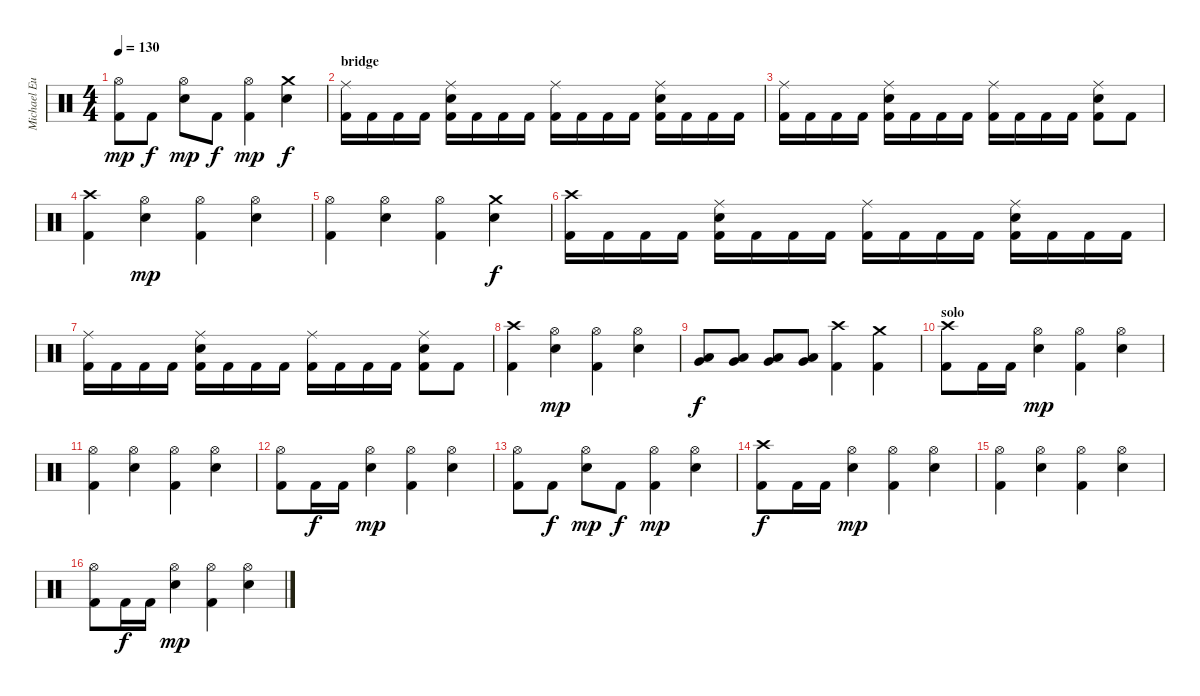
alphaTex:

\track ("Michael Eurich" "Michael Eu") {instrument percussion}
\staff {score}
\articulation defaults
\ts (4 4)
\tempo 130
\clef neutral
\ks c
("Kick (hit) 2" "Hi-Hat (open)").8{dy mp} "Kick (hit) 2".8{dy f} ("Hi-Hat (open)" "Snare (hit) 2").8{dy mp} "Kick (hit) 2".8{dy f} ("Kick (hit) 2" "Hi-Hat (open)").4{dy mp} ("Crash medium (hit)" "Snare (hit) 2").4{dy f} |
\section ("" "bridge")
("Kick (hit) 2" "Ride (middle)").16 "Kick (hit) 2".16 "Kick (hit) 2".16 "Kick (hit) 2".16 ("Kick (hit) 2" "Ride (middle)" "Snare (hit) 2").16 "Kick (hit) 2".16 "Kick (hit) 2".16 "Kick (hit) 2".16 ("Kick (hit) 2" "Ride (middle)").16 "Kick (hit) 2".16 "Kick (hit) 2".16 "Kick (hit) 2".16 ("Kick (hit) 2" "Ride (middle)" "Snare (hit) 2").16 "Kick (hit) 2".16 "Kick (hit) 2".16 "Kick (hit) 2".16 |
("Kick (hit) 2" "Ride (middle)").16 "Kick (hit) 2".16 "Kick (hit) 2".16 "Kick (hit) 2".16 ("Kick (hit) 2" "Ride (middle)" "Snare (hit) 2").16 "Kick (hit) 2".16 "Kick (hit) 2".16 "Kick (hit) 2".16 ("Kick (hit) 2" "Ride (middle)").16 "Kick (hit) 2".16 "Kick (hit) 2".16 "Kick (hit) 2".16 ("Kick (hit) 2" "Ride (middle)" "Snare (hit) 2").8 "Kick (hit) 2".8 |
("Kick (hit) 2" "Crash high (hit)").4 ("Hi-Hat (open)" "Snare (hit) 2").4{dy mp} ("Kick (hit) 2" "Hi-Hat (open)").4 ("Hi-Hat (open)" "Snare (hit) 2").4 |
("Kick (hit) 2" "Hi-Hat (open)").4 ("Hi-Hat (open)" "Snare (hit) 2").4 ("Kick (hit) 2" "Hi-Hat (open)").4 ("Crash medium (hit)" "Snare (hit) 2").4{dy f} |
("Kick (hit) 2" "Crash high (hit)").16 "Kick (hit) 2".16 "Kick (hit) 2".16 "Kick (hit) 2".16 ("Kick (hit) 2" "Ride (middle)" "Snare (hit) 2").16 "Kick (hit) 2".16 "Kick (hit) 2".16 "Kick (hit) 2".16 ("Kick (hit) 2" "Ride (middle)").16 "Kick (hit) 2".16 "Kick (hit) 2".16 "Kick (hit) 2".16 ("Kick (hit) 2" "Ride (middle)" "Snare (hit) 2").16 "Kick (hit) 2".16 "Kick (hit) 2".16 "Kick (hit) 2".16 |
("Kick (hit) 2" "Ride (middle)").16 "Kick (hit) 2".16 "Kick (hit) 2".16 "Kick (hit) 2".16 ("Kick (hit) 2" "Ride (middle)" "Snare (hit) 2").16 "Kick (hit) 2".16 "Kick (hit) 2".16 "Kick (hit) 2".16 ("Kick (hit) 2" "Ride (middle)").16 "Kick (hit) 2".16 "Kick (hit) 2".16 "Kick (hit) 2".16 ("Kick (hit) 2" "Ride (middle)" "Snare (hit) 2").8 "Kick (hit) 2".8 |
("Kick (hit) 2" "Crash high (hit)").4 ("Hi-Hat (open)" "Snare (hit) 2").4{dy mp} ("Kick (hit) 2" "Hi-Hat (open)").4 ("Hi-Hat (open)" "Snare (hit) 2").4 |
("Very Low Tom (hit)" "Low Floor Tom (hit)").8{dy f} ("Very Low Tom (hit)" "Low Floor Tom (hit)").8 ("Very Low Tom (hit)" "Low Floor Tom (hit)").8 ("Very Low Tom (hit)" "Low Floor Tom (hit)").8 ("Kick (hit) 2" "Crash high (hit)").4 ("Kick (hit) 2" "Crash medium (hit)").4 |
\section ("" "solo")
("Kick (hit) 2" "Crash high (hit)").8 "Kick (hit) 2".16 "Kick (hit) 2".16 ("Hi-Hat (open)" "Snare (hit) 2").4{dy mp} ("Kick (hit) 2" "Hi-Hat (open)").4 ("Hi-Hat (open)" "Snare (hit) 2").4 |
("Kick (hit) 2" "Hi-Hat (open)").4 ("Hi-Hat (open)" "Snare (hit) 2").4 ("Kick (hit) 2" "Hi-Hat (open)").4 ("Hi-Hat (open)" "Snare (hit) 2").4 |
("Kick (hit) 2" "Hi-Hat (open)").8 "Kick (hit) 2".16{dy f} "Kick (hit) 2".16 ("Hi-Hat (open)" "Snare (hit) 2").4{dy mp} ("Kick (hit) 2" "Hi-Hat (open)").4 ("Hi-Hat (open)" "Snare (hit) 2").4 |
("Kick (hit) 2" "Hi-Hat (open)").8 "Kick (hit) 2".8{dy f} ("Hi-Hat (open)" "Snare (hit) 2").8{dy mp} "Kick (hit) 2".8{dy f} ("Kick (hit) 2" "Hi-Hat (open)").4{dy mp} ("Hi-Hat (open)" "Snare (hit) 2").4 |
("Kick (hit) 2" "Crash high (hit)").8{dy f} "Kick (hit) 2".16 "Kick (hit) 2".16 ("Hi-Hat (open)" "Snare (hit) 2").4{dy mp} ("Kick (hit) 2" "Hi-Hat (open)").4 ("Hi-Hat (open)" "Snare (hit) 2").4 |
("Kick (hit) 2" "Hi-Hat (open)").4 ("Hi-Hat (open)" "Snare (hit) 2").4 ("Kick (hit) 2" "Hi-Hat (open)").4 ("Hi-Hat (open)" "Snare (hit) 2").4 |
("Kick (hit) 2" "Hi-Hat (open)").8 "Kick (hit) 2".16{dy f} "Kick (hit) 2".16 ("Hi-Hat (open)" "Snare (hit) 2").4{dy mp} ("Kick (hit) 2" "Hi-Hat (open)").4 ("Hi-Hat (open)" "Snare (hit) 2").4
